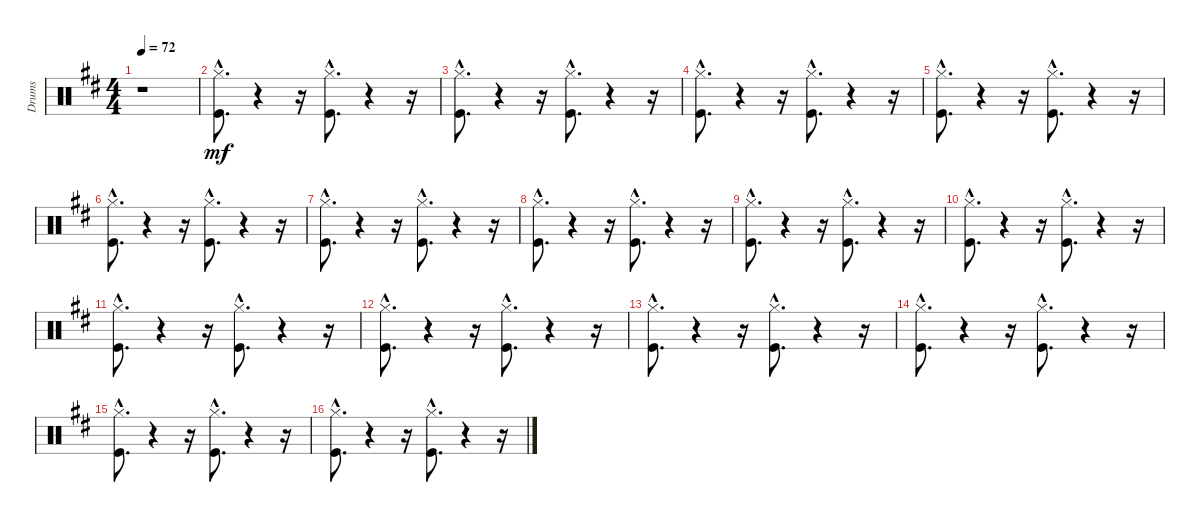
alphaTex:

\track ("Drums" "Drums") {instrument percussion}
\staff {score}
\articulation defaults
\ts (4 4)
\tempo 72
\clef neutral
\ks d
r.1{dy mf} |
("Kick (hit)"{hac} "Hi-Hat (closed)"{hac}).8{d} r.4 r.16 ("Kick (hit)"{hac} "Hi-Hat (closed)"{hac}).8{d} r.4 r.16 |
("Kick (hit)"{hac} "Hi-Hat (closed)"{hac}).8{d} r.4 r.16 ("Kick (hit)"{hac} "Hi-Hat (closed)"{hac}).8{d} r.4 r.16 |
("Kick (hit)"{hac} "Hi-Hat (closed)"{hac}).8{d} r.4 r.16 ("Kick (hit)"{hac} "Hi-Hat (closed)"{hac}).8{d} r.4 r.16 |
("Kick (hit)"{hac} "Hi-Hat (closed)"{hac}).8{d} r.4 r.16 ("Kick (hit)"{hac} "Hi-Hat (closed)"{hac}).8{d} r.4 r.16 |
("Kick (hit)"{hac} "Hi-Hat (closed)"{hac}).8{d} r.4 r.16 ("Kick (hit)"{hac} "Hi-Hat (closed)"{hac}).8{d} r.4 r.16 |
("Kick (hit)"{hac} "Hi-Hat (closed)"{hac}).8{d} r.4 r.16 ("Kick (hit)"{hac} "Hi-Hat (closed)"{hac}).8{d} r.4 r.16 |
("Kick (hit)"{hac} "Hi-Hat (closed)"{hac}).8{d} r.4 r.16 ("Kick (hit)"{hac} "Hi-Hat (closed)"{hac}).8{d} r.4 r.16 |
("Kick (hit)"{hac} "Hi-Hat (closed)"{hac}).8{d} r.4 r.16 ("Kick (hit)"{hac} "Hi-Hat (closed)"{hac}).8{d} r.4 r.16 |
("Kick (hit)"{hac} "Hi-Hat (closed)"{hac}).8{d} r.4 r.16 ("Kick (hit)"{hac} "Hi-Hat (closed)"{hac}).8{d} r.4 r.16 |
("Kick (hit)"{hac} "Hi-Hat (closed)"{hac}).8{d} r.4 r.16 ("Kick (hit)"{hac} "Hi-Hat (closed)"{hac}).8{d} r.4 r.16 |
("Kick (hit)"{hac} "Hi-Hat (closed)"{hac}).8{d} r.4 r.16 ("Kick (hit)"{hac} "Hi-Hat (closed)"{hac}).8{d} r.4 r.16 |
("Kick (hit)"{hac} "Hi-Hat (closed)"{hac}).8{d} r.4 r.16 ("Kick (hit)"{hac} "Hi-Hat (closed)"{hac}).8{d} r.4 r.16 |
("Kick (hit)"{hac} "Hi-Hat (closed)"{hac}).8{d} r.4 r.16 ("Kick (hit)"{hac} "Hi-Hat (closed)"{hac}).8{d} r.4 r.16 |
("Kick (hit)"{hac} "Hi-Hat (closed)"{hac}).8{d} r.4 r.16 ("Kick (hit)"{hac} "Hi-Hat (closed)"{hac}).8{d} r.4 r.16 |
("Kick (hit)"{hac} "Hi-Hat (closed)"{hac}).8{d} r.4 r.16 ("Kick (hit)"{hac} "Hi-Hat (closed)"{hac}).8{d} r.4 r.16
